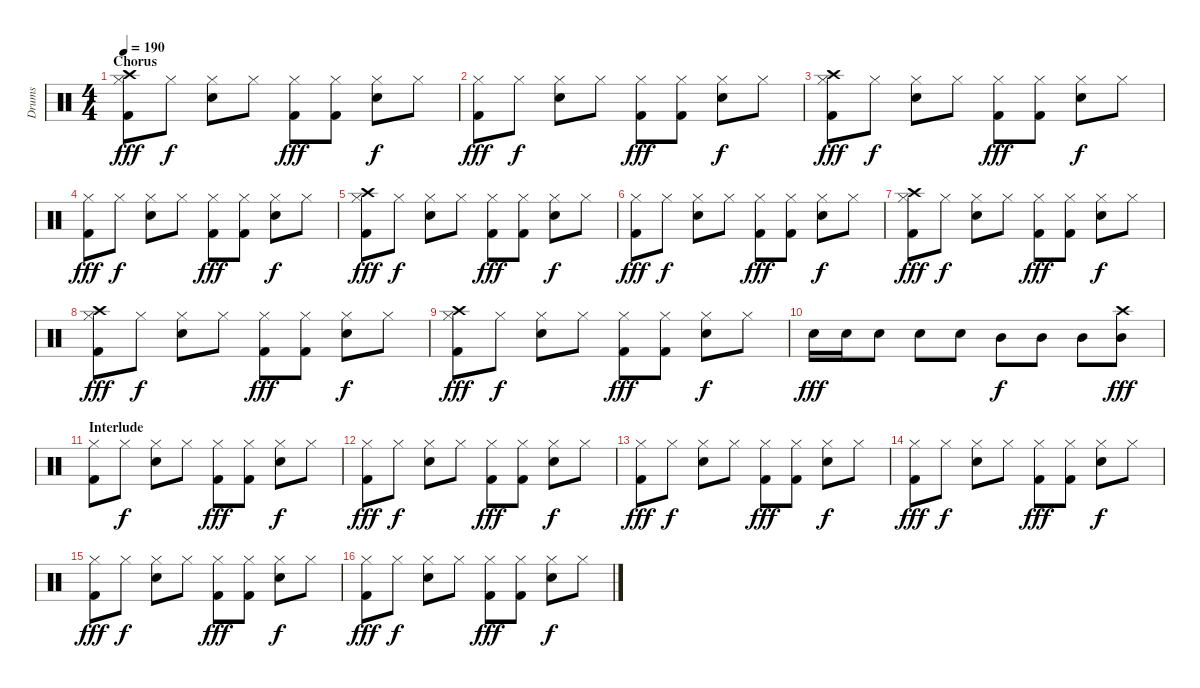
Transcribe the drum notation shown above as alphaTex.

\track ("Drums" "Drums") {instrument percussion}
\staff {score}
\articulation defaults
\ts (4 4)
\section ("" "Chorus")
\tempo 190
\clef neutral
\ks c
("Crash high (hit)" "Hi-Hat (closed)" "Kick (hit) 2").8{dy fff} "Hi-Hat (closed)".8{dy f} ("Hi-Hat (closed)" "Electric Snare (hit)").8 "Hi-Hat (closed)".8 ("Hi-Hat (closed)" "Kick (hit) 2").8{dy fff} ("Hi-Hat (closed)" "Kick (hit) 2").8 ("Hi-Hat (closed)" "Electric Snare (hit)").8{dy f} "Hi-Hat (closed)".8 |
("Hi-Hat (closed)" "Kick (hit) 2").8{dy fff} "Hi-Hat (closed)".8{dy f} ("Hi-Hat (closed)" "Electric Snare (hit)").8 "Hi-Hat (closed)".8 ("Hi-Hat (closed)" "Kick (hit) 2").8{dy fff} ("Hi-Hat (closed)" "Kick (hit) 2").8 ("Hi-Hat (closed)" "Electric Snare (hit)").8{dy f} "Hi-Hat (closed)".8 |
("Crash high (hit)" "Hi-Hat (closed)" "Kick (hit) 2").8{dy fff} "Hi-Hat (closed)".8{dy f} ("Hi-Hat (closed)" "Electric Snare (hit)").8 "Hi-Hat (closed)".8 ("Hi-Hat (closed)" "Kick (hit) 2").8{dy fff} ("Hi-Hat (closed)" "Kick (hit) 2").8 ("Hi-Hat (closed)" "Electric Snare (hit)").8{dy f} "Hi-Hat (closed)".8 |
("Hi-Hat (closed)" "Kick (hit) 2").8{dy fff} "Hi-Hat (closed)".8{dy f} ("Hi-Hat (closed)" "Electric Snare (hit)").8 "Hi-Hat (closed)".8 ("Hi-Hat (closed)" "Kick (hit) 2").8{dy fff} ("Hi-Hat (closed)" "Kick (hit) 2").8 ("Hi-Hat (closed)" "Electric Snare (hit)").8{dy f} "Hi-Hat (closed)".8 |
("Crash high (hit)" "Hi-Hat (closed)" "Kick (hit) 2").8{dy fff} "Hi-Hat (closed)".8{dy f} ("Hi-Hat (closed)" "Electric Snare (hit)").8 "Hi-Hat (closed)".8 ("Hi-Hat (closed)" "Kick (hit) 2").8{dy fff} ("Hi-Hat (closed)" "Kick (hit) 2").8 ("Hi-Hat (closed)" "Electric Snare (hit)").8{dy f} "Hi-Hat (closed)".8 |
("Hi-Hat (closed)" "Kick (hit) 2").8{dy fff} "Hi-Hat (closed)".8{dy f} ("Hi-Hat (closed)" "Electric Snare (hit)").8 "Hi-Hat (closed)".8 ("Hi-Hat (closed)" "Kick (hit) 2").8{dy fff} ("Hi-Hat (closed)" "Kick (hit) 2").8 ("Hi-Hat (closed)" "Electric Snare (hit)").8{dy f} "Hi-Hat (closed)".8 |
("Crash high (hit)" "Hi-Hat (closed)" "Kick (hit) 2").8{dy fff} "Hi-Hat (closed)".8{dy f} ("Hi-Hat (closed)" "Electric Snare (hit)").8 "Hi-Hat (closed)".8 ("Hi-Hat (closed)" "Kick (hit) 2").8{dy fff} ("Hi-Hat (closed)" "Kick (hit) 2").8 ("Hi-Hat (closed)" "Electric Snare (hit)").8{dy f} "Hi-Hat (closed)".8 |
("Crash high (hit)" "Hi-Hat (closed)" "Kick (hit) 2").8{dy fff} "Hi-Hat (closed)".8{dy f} ("Hi-Hat (closed)" "Electric Snare (hit)").8 "Hi-Hat (closed)".8 ("Hi-Hat (closed)" "Kick (hit) 2").8{dy fff} ("Hi-Hat (closed)" "Kick (hit) 2").8 ("Hi-Hat (closed)" "Electric Snare (hit)").8{dy f} "Hi-Hat (closed)".8 |
("Crash high (hit)" "Hi-Hat (closed)" "Kick (hit) 2").8{dy fff} "Hi-Hat (closed)".8{dy f} ("Hi-Hat (closed)" "Electric Snare (hit)").8 "Hi-Hat (closed)".8 ("Hi-Hat (closed)" "Kick (hit) 2").8{dy fff} ("Hi-Hat (closed)" "Kick (hit) 2").8 ("Hi-Hat (closed)" "Electric Snare (hit)").8{dy f} "Hi-Hat (closed)".8 |
"Electric Snare (hit)".16{dy fff} "Electric Snare (hit)".16 "Electric Snare (hit)".8 "Electric Snare (hit)".8 "Electric Snare (hit)".8 "Mid Tom (hit)".8{dy f} "Mid Tom (hit)".8 "Mid Tom (hit)".8 ("Crash high (hit)" "Mid Tom (hit)").8{dy fff} |
\section ("" "Interlude")
("Hi-Hat (closed)" "Kick (hit) 2").8 "Hi-Hat (closed)".8{dy f} ("Hi-Hat (closed)" "Electric Snare (hit)").8 "Hi-Hat (closed)".8 ("Hi-Hat (closed)" "Kick (hit) 2").8{dy fff} ("Hi-Hat (closed)" "Kick (hit) 2").8 ("Hi-Hat (closed)" "Electric Snare (hit)").8{dy f} "Hi-Hat (closed)".8 |
("Hi-Hat (closed)" "Kick (hit) 2").8{dy fff} "Hi-Hat (closed)".8{dy f} ("Hi-Hat (closed)" "Electric Snare (hit)").8 "Hi-Hat (closed)".8 ("Hi-Hat (closed)" "Kick (hit) 2").8{dy fff} ("Hi-Hat (closed)" "Kick (hit) 2").8 ("Hi-Hat (closed)" "Electric Snare (hit)").8{dy f} "Hi-Hat (closed)".8 |
("Hi-Hat (closed)" "Kick (hit) 2").8{dy fff} "Hi-Hat (closed)".8{dy f} ("Hi-Hat (closed)" "Electric Snare (hit)").8 "Hi-Hat (closed)".8 ("Hi-Hat (closed)" "Kick (hit) 2").8{dy fff} ("Hi-Hat (closed)" "Kick (hit) 2").8 ("Hi-Hat (closed)" "Electric Snare (hit)").8{dy f} "Hi-Hat (closed)".8 |
("Hi-Hat (closed)" "Kick (hit) 2").8{dy fff} "Hi-Hat (closed)".8{dy f} ("Hi-Hat (closed)" "Electric Snare (hit)").8 "Hi-Hat (closed)".8 ("Hi-Hat (closed)" "Kick (hit) 2").8{dy fff} ("Hi-Hat (closed)" "Kick (hit) 2").8 ("Hi-Hat (closed)" "Electric Snare (hit)").8{dy f} "Hi-Hat (closed)".8 |
("Hi-Hat (closed)" "Kick (hit) 2").8{dy fff} "Hi-Hat (closed)".8{dy f} ("Hi-Hat (closed)" "Electric Snare (hit)").8 "Hi-Hat (closed)".8 ("Hi-Hat (closed)" "Kick (hit) 2").8{dy fff} ("Hi-Hat (closed)" "Kick (hit) 2").8 ("Hi-Hat (closed)" "Electric Snare (hit)").8{dy f} "Hi-Hat (closed)".8 |
("Hi-Hat (closed)" "Kick (hit) 2").8{dy fff} "Hi-Hat (closed)".8{dy f} ("Hi-Hat (closed)" "Electric Snare (hit)").8 "Hi-Hat (closed)".8 ("Hi-Hat (closed)" "Kick (hit) 2").8{dy fff} ("Hi-Hat (closed)" "Kick (hit) 2").8 ("Hi-Hat (closed)" "Electric Snare (hit)").8{dy f} "Hi-Hat (closed)".8
